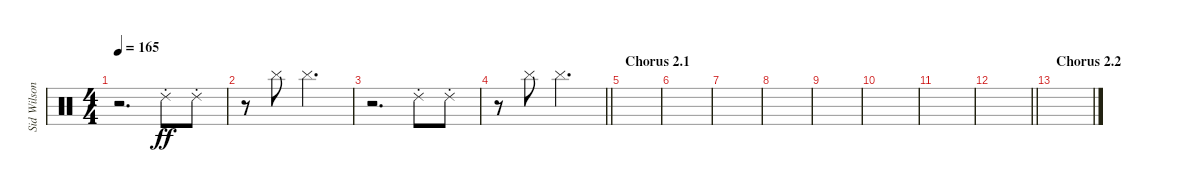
\track ("Sid Wilson" "Sid Wilson") {instrument percussion}
\staff {score}
\articulation defaults
\ts (4 4)
\tempo 165
\clef neutral
\ks c
r.2{d dy ff} "Ride (choke) 2".8 "Ride (choke) 2".8 |
r.8 "Cymbal (hit)".8 "Cymbal (hit)".2{d} |
r.2{d} "Ride (choke) 2".8 "Ride (choke) 2".8 |
\barLineRight lightlight
r.8 "Cymbal (hit)".8 "Cymbal (hit)".2{d} |
\section ("" "Chorus 2.1")
|
|
|
|
|
|
|
\barLineRight lightlight
|
\section ("" "Chorus 2.2")
